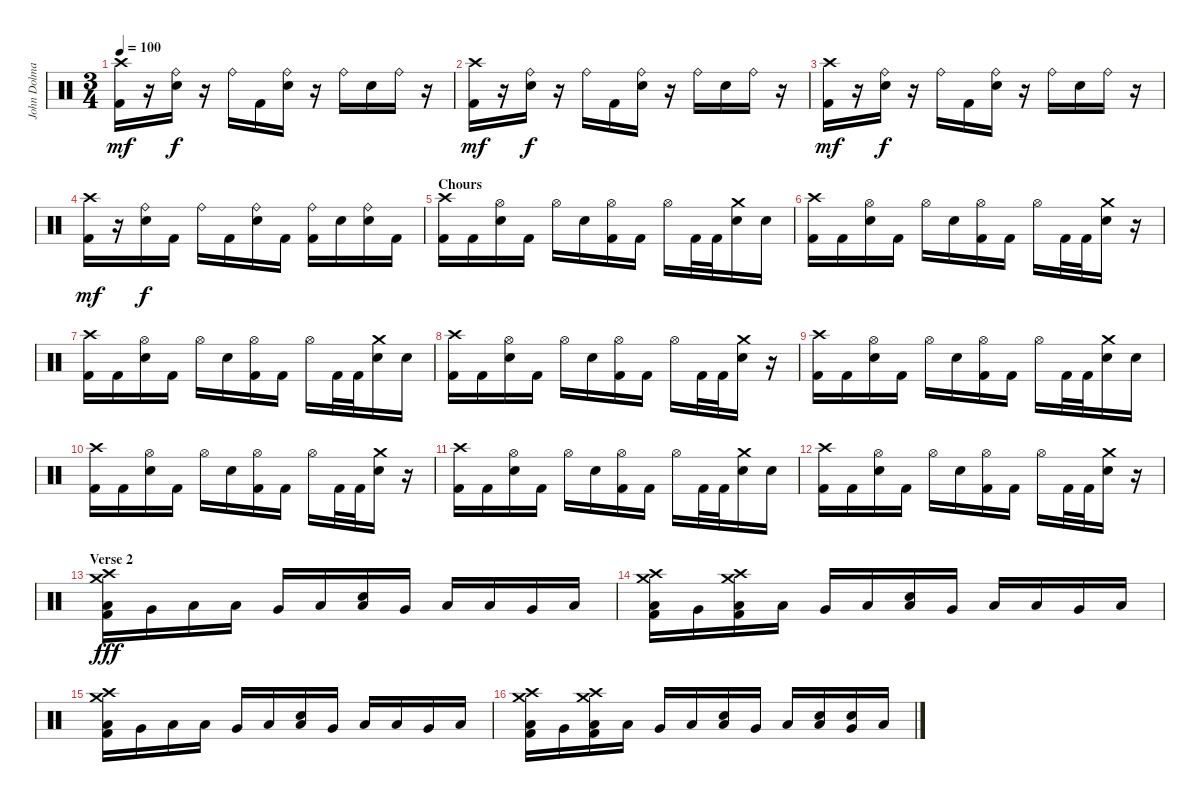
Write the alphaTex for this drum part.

\track ("John Dolmayan" "John Dolma") {instrument percussion}
\staff {score}
\articulation defaults
\ts (3 4)
\tempo 100
\clef neutral
\ks c
("Crash high (hit)" "Kick (hit) 2").16{dy mf} r.16 ("Ride (bell)" "Electric Snare (hit)").16{dy f} r.16 "Ride (bell)".16 "Kick (hit) 2".16 ("Ride (bell)" "Electric Snare (hit)").16 r.16 "Ride (bell)".16 "Electric Snare (hit)".16 "Ride (bell)".16 r.16 |
("Crash high (hit)" "Kick (hit) 2").16{dy mf} r.16 ("Ride (bell)" "Electric Snare (hit)").16{dy f} r.16 "Ride (bell)".16 "Kick (hit) 2".16 ("Ride (bell)" "Electric Snare (hit)").16 r.16 "Ride (bell)".16 "Electric Snare (hit)".16 "Ride (bell)".16 r.16 |
("Crash high (hit)" "Kick (hit) 2").16{dy mf} r.16 ("Ride (bell)" "Electric Snare (hit)").16{dy f} r.16 "Ride (bell)".16 "Kick (hit) 2".16 ("Ride (bell)" "Electric Snare (hit)").16 r.16 "Ride (bell)".16 "Electric Snare (hit)".16 "Ride (bell)".16 r.16 |
("Crash high (hit)" "Kick (hit) 2").16{dy mf} r.16 ("Ride (bell)" "Electric Snare (hit)").16{dy f} "Kick (hit) 2".16 "Ride (bell)".16 "Kick (hit) 2".16 ("Ride (bell)" "Electric Snare (hit)").16 "Kick (hit) 2".16 ("Ride (bell)" "Kick (hit) 2").16 "Electric Snare (hit)".16 ("Ride (bell)" "Electric Snare (hit)").16 "Kick (hit) 2".16 |
\section ("" "Chours")
("Crash high (hit)" "Kick (hit) 2").16 "Kick (hit) 2".16 ("Hi-Hat (open)" "Electric Snare (hit)").16 "Kick (hit) 2".16 "Hi-Hat (open)".16 "Electric Snare (hit)".16 ("Hi-Hat (open)" "Kick (hit) 2").16 "Kick (hit) 2".16 "Hi-Hat (open)".16 "Kick (hit) 2".32 "Kick (hit) 2".32 ("Crash medium (hit)" "Electric Snare (hit)").16 "Electric Snare (hit)".16 |
("Crash high (hit)" "Kick (hit) 2").16 "Kick (hit) 2".16 ("Hi-Hat (open)" "Electric Snare (hit)").16 "Kick (hit) 2".16 "Hi-Hat (open)".16 "Electric Snare (hit)".16 ("Hi-Hat (open)" "Kick (hit) 2").16 "Kick (hit) 2".16 "Hi-Hat (open)".16 "Kick (hit) 2".32 "Kick (hit) 2".32 ("Crash medium (hit)" "Electric Snare (hit)").16 r.16 |
("Crash high (hit)" "Kick (hit) 2").16 "Kick (hit) 2".16 ("Hi-Hat (open)" "Electric Snare (hit)").16 "Kick (hit) 2".16 "Hi-Hat (open)".16 "Electric Snare (hit)".16 ("Hi-Hat (open)" "Kick (hit) 2").16 "Kick (hit) 2".16 "Hi-Hat (open)".16 "Kick (hit) 2".32 "Kick (hit) 2".32 ("Crash medium (hit)" "Electric Snare (hit)").16 "Electric Snare (hit)".16 |
("Crash high (hit)" "Kick (hit) 2").16 "Kick (hit) 2".16 ("Hi-Hat (open)" "Electric Snare (hit)").16 "Kick (hit) 2".16 "Hi-Hat (open)".16 "Electric Snare (hit)".16 ("Hi-Hat (open)" "Kick (hit) 2").16 "Kick (hit) 2".16 "Hi-Hat (open)".16 "Kick (hit) 2".32 "Kick (hit) 2".32 ("Crash medium (hit)" "Electric Snare (hit)").16 r.16 |
("Crash high (hit)" "Kick (hit) 2").16 "Kick (hit) 2".16 ("Hi-Hat (open)" "Electric Snare (hit)").16 "Kick (hit) 2".16 "Hi-Hat (open)".16 "Electric Snare (hit)".16 ("Hi-Hat (open)" "Kick (hit) 2").16 "Kick (hit) 2".16 "Hi-Hat (open)".16 "Kick (hit) 2".32 "Kick (hit) 2".32 ("Crash medium (hit)" "Electric Snare (hit)").16 "Electric Snare (hit)".16 |
("Crash high (hit)" "Kick (hit) 2").16 "Kick (hit) 2".16 ("Hi-Hat (open)" "Electric Snare (hit)").16 "Kick (hit) 2".16 "Hi-Hat (open)".16 "Electric Snare (hit)".16 ("Hi-Hat (open)" "Kick (hit) 2").16 "Kick (hit) 2".16 "Hi-Hat (open)".16 "Kick (hit) 2".32 "Kick (hit) 2".32 ("Crash medium (hit)" "Electric Snare (hit)").16 r.16 |
("Crash high (hit)" "Kick (hit) 2").16 "Kick (hit) 2".16 ("Hi-Hat (open)" "Electric Snare (hit)").16 "Kick (hit) 2".16 "Hi-Hat (open)".16 "Electric Snare (hit)".16 ("Hi-Hat (open)" "Kick (hit) 2").16 "Kick (hit) 2".16 "Hi-Hat (open)".16 "Kick (hit) 2".32 "Kick (hit) 2".32 ("Crash medium (hit)" "Electric Snare (hit)").16 "Electric Snare (hit)".16 |
("Crash high (hit)" "Kick (hit) 2").16 "Kick (hit) 2".16 ("Hi-Hat (open)" "Electric Snare (hit)").16 "Kick (hit) 2".16 "Hi-Hat (open)".16 "Electric Snare (hit)".16 ("Hi-Hat (open)" "Kick (hit) 2").16 "Kick (hit) 2".16 "Hi-Hat (open)".16 "Kick (hit) 2".32 "Kick (hit) 2".32 ("Crash medium (hit)" "Electric Snare (hit)").16 r.16 |
\section ("" "Verse 2")
("Crash high (hit)" "Crash medium (hit)" "Low Tom (hit)" "Kick (hit) 2").16{dy fff} "Very Low Tom (hit)".16 "Low Floor Tom (hit)".16 "Low Tom (hit)".16 "Very Low Tom (hit)".16 "Low Floor Tom (hit)".16 ("Low Tom (hit)" "Electric Snare (hit)").16 "Very Low Tom (hit)".16 "Low Floor Tom (hit)".16 "Low Tom (hit)".16 "Very Low Tom (hit)".16 "Low Floor Tom (hit)".16 |
("Crash high (hit)" "Crash medium (hit)" "Low Tom (hit)" "Kick (hit) 2").16 "Very Low Tom (hit)".16 ("Crash high (hit)" "Crash medium (hit)" "Low Floor Tom (hit)" "Kick (hit) 2").16 "Low Tom (hit)".16 "Very Low Tom (hit)".16 "Low Floor Tom (hit)".16 ("Low Tom (hit)" "Electric Snare (hit)").16 "Very Low Tom (hit)".16 "Low Floor Tom (hit)".16 "Low Tom (hit)".16 "Very Low Tom (hit)".16 "Low Floor Tom (hit)".16 |
("Crash high (hit)" "Crash medium (hit)" "Low Tom (hit)" "Kick (hit) 2").16 "Very Low Tom (hit)".16 "Low Floor Tom (hit)".16 "Low Tom (hit)".16 "Very Low Tom (hit)".16 "Low Floor Tom (hit)".16 ("Low Tom (hit)" "Electric Snare (hit)").16 "Very Low Tom (hit)".16 "Low Floor Tom (hit)".16 "Low Tom (hit)".16 "Very Low Tom (hit)".16 "Low Floor Tom (hit)".16 |
("Crash high (hit)" "Crash medium (hit)" "Low Tom (hit)" "Kick (hit) 2").16 "Very Low Tom (hit)".16 ("Crash high (hit)" "Crash medium (hit)" "Low Floor Tom (hit)" "Kick (hit) 2").16 "Low Tom (hit)".16 "Very Low Tom (hit)".16 "Low Floor Tom (hit)".16 ("Low Tom (hit)" "Electric Snare (hit)").16 "Very Low Tom (hit)".16 "Low Floor Tom (hit)".16 ("Low Tom (hit)" "Electric Snare (hit)").16 ("Very Low Tom (hit)" "Electric Snare (hit)").16 "Low Floor Tom (hit)".16
